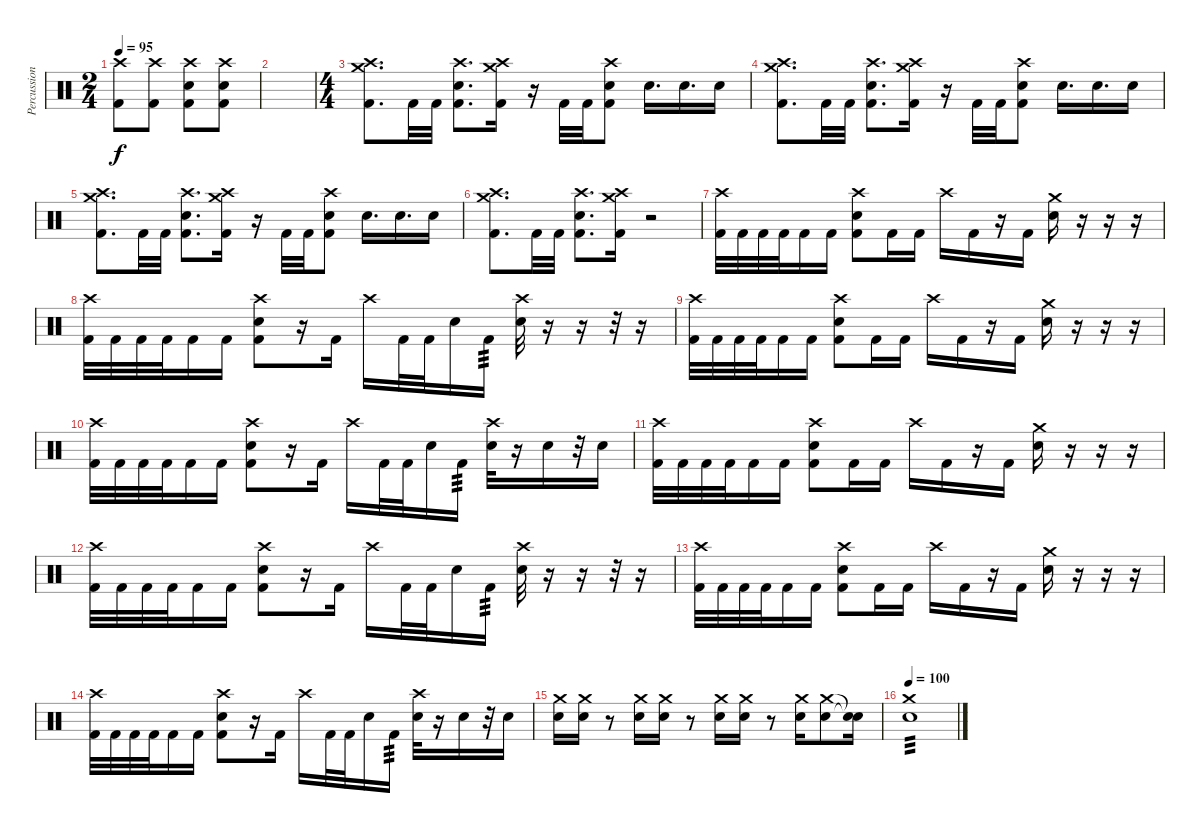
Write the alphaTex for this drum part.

\track ("Percussion" "Percussion") {instrument percussion}
\staff {score}
\articulation defaults
\ts (2 4)
\tempo 95
\clef neutral
\ks c
("Crash high (hit)" "Kick (hit) 2").8{dy f} ("Crash high (hit)" "Kick (hit) 2").8 ("Crash high (hit)" "Electric Snare (hit)" "Kick (hit) 2").8 ("Crash high (hit)" "Electric Snare (hit)" "Kick (hit) 2").8 |
|
\ts (4 4)
("Crash medium (hit)" "Crash high (hit)" "Kick (hit) 2").8{d} "Kick (hit) 2".32 "Kick (hit) 2".32 ("Crash high (hit)" "Electric Snare (hit)" "Kick (hit) 2").8{d} ("Crash medium (hit)" "Crash high (hit)" "Kick (hit) 2").16 r.16 "Kick (hit) 2".32 "Kick (hit) 2".32 ("Crash high (hit)" "Electric Snare (hit)" "Kick (hit) 2").8 "Electric Snare (hit)".16{d} "Electric Snare (hit)".16{d} "Electric Snare (hit)".16 |
("Crash medium (hit)" "Crash high (hit)" "Kick (hit) 2").8{d} "Kick (hit) 2".32 "Kick (hit) 2".32 ("Crash high (hit)" "Electric Snare (hit)" "Kick (hit) 2").8{d} ("Crash medium (hit)" "Crash high (hit)" "Kick (hit) 2").16 r.16 "Kick (hit) 2".32 "Kick (hit) 2".32 ("Crash high (hit)" "Electric Snare (hit)" "Kick (hit) 2").8 "Electric Snare (hit)".16{d} "Electric Snare (hit)".16{d} "Electric Snare (hit)".16 |
("Crash medium (hit)" "Crash high (hit)" "Kick (hit) 2").8{d} "Kick (hit) 2".32 "Kick (hit) 2".32 ("Crash high (hit)" "Electric Snare (hit)" "Kick (hit) 2").8{d} ("Crash medium (hit)" "Crash high (hit)" "Kick (hit) 2").16 r.16 "Kick (hit) 2".32 "Kick (hit) 2".32 ("Crash high (hit)" "Electric Snare (hit)" "Kick (hit) 2").8 "Electric Snare (hit)".16{d} "Electric Snare (hit)".16{d} "Electric Snare (hit)".16 |
("Crash medium (hit)" "Crash high (hit)" "Kick (hit) 2").8{d} "Kick (hit) 2".32 "Kick (hit) 2".32 ("Crash high (hit)" "Electric Snare (hit)" "Kick (hit) 2").8{d} ("Crash medium (hit)" "Crash high (hit)" "Kick (hit) 2").16 r.2 |
("Crash high (hit)" "Kick (hit) 2").32 "Kick (hit) 2".32 "Kick (hit) 2".32 "Kick (hit) 2".32 "Kick (hit) 2".16 "Kick (hit) 2".16 ("Crash high (hit)" "Electric Snare (hit)" "Kick (hit) 2").8 "Kick (hit) 2".16 "Kick (hit) 2".16 "Crash high (hit)".16 "Kick (hit) 2".16 r.16 "Kick (hit) 2".16 ("Crash medium (hit)" "Electric Snare (hit)").16 r.16 r.16 r.16 |
("Crash high (hit)" "Kick (hit) 2").32 "Kick (hit) 2".32 "Kick (hit) 2".32 "Kick (hit) 2".32 "Kick (hit) 2".16 "Kick (hit) 2".16 ("Crash high (hit)" "Electric Snare (hit)" "Kick (hit) 2").8 r.16 "Kick (hit) 2".16 "Crash high (hit)".16 "Kick (hit) 2".32 "Kick (hit) 2".32 "Electric Snare (hit)".16 "Kick (hit) 2".16{tp 3} ("Crash high (hit)" "Electric Snare (hit)").32 r.16 r.16 r.32 r.16 |
("Crash high (hit)" "Kick (hit) 2").32 "Kick (hit) 2".32 "Kick (hit) 2".32 "Kick (hit) 2".32 "Kick (hit) 2".16 "Kick (hit) 2".16 ("Crash high (hit)" "Electric Snare (hit)" "Kick (hit) 2").8 "Kick (hit) 2".16 "Kick (hit) 2".16 "Crash high (hit)".16 "Kick (hit) 2".16 r.16 "Kick (hit) 2".16 ("Crash medium (hit)" "Electric Snare (hit)").16 r.16 r.16 r.16 |
("Crash high (hit)" "Kick (hit) 2").32 "Kick (hit) 2".32 "Kick (hit) 2".32 "Kick (hit) 2".32 "Kick (hit) 2".16 "Kick (hit) 2".16 ("Crash high (hit)" "Electric Snare (hit)" "Kick (hit) 2").8 r.16 "Kick (hit) 2".16 "Crash high (hit)".16 "Kick (hit) 2".32 "Kick (hit) 2".32 "Electric Snare (hit)".16 "Kick (hit) 2".16{tp 3} ("Crash high (hit)" "Electric Snare (hit)").32 r.16 "Electric Snare (hit)".16 r.32 "Electric Snare (hit)".16 |
("Crash high (hit)" "Kick (hit) 2").32 "Kick (hit) 2".32 "Kick (hit) 2".32 "Kick (hit) 2".32 "Kick (hit) 2".16 "Kick (hit) 2".16 ("Crash high (hit)" "Electric Snare (hit)" "Kick (hit) 2").8 "Kick (hit) 2".16 "Kick (hit) 2".16 "Crash high (hit)".16 "Kick (hit) 2".16 r.16 "Kick (hit) 2".16 ("Crash medium (hit)" "Electric Snare (hit)").16 r.16 r.16 r.16 |
("Crash high (hit)" "Kick (hit) 2").32 "Kick (hit) 2".32 "Kick (hit) 2".32 "Kick (hit) 2".32 "Kick (hit) 2".16 "Kick (hit) 2".16 ("Crash high (hit)" "Electric Snare (hit)" "Kick (hit) 2").8 r.16 "Kick (hit) 2".16 "Crash high (hit)".16 "Kick (hit) 2".32 "Kick (hit) 2".32 "Electric Snare (hit)".16 "Kick (hit) 2".16{tp 3} ("Crash high (hit)" "Electric Snare (hit)").32 r.16 r.16 r.32 r.16 |
("Crash high (hit)" "Kick (hit) 2").32 "Kick (hit) 2".32 "Kick (hit) 2".32 "Kick (hit) 2".32 "Kick (hit) 2".16 "Kick (hit) 2".16 ("Crash high (hit)" "Electric Snare (hit)" "Kick (hit) 2").8 "Kick (hit) 2".16 "Kick (hit) 2".16 "Crash high (hit)".16 "Kick (hit) 2".16 r.16 "Kick (hit) 2".16 ("Crash medium (hit)" "Electric Snare (hit)").16 r.16 r.16 r.16 |
("Crash high (hit)" "Kick (hit) 2").32 "Kick (hit) 2".32 "Kick (hit) 2".32 "Kick (hit) 2".32 "Kick (hit) 2".16 "Kick (hit) 2".16 ("Crash high (hit)" "Electric Snare (hit)" "Kick (hit) 2").8 r.16 "Kick (hit) 2".16 "Crash high (hit)".16 "Kick (hit) 2".32 "Kick (hit) 2".32 "Electric Snare (hit)".16 "Kick (hit) 2".16{tp 3} ("Crash high (hit)" "Electric Snare (hit)").32 r.16 "Electric Snare (hit)".16 r.32 "Electric Snare (hit)".16 |
("Crash medium (hit)" "Electric Snare (hit)").16 ("Crash medium (hit)" "Electric Snare (hit)").16 r.8 ("Crash medium (hit)" "Electric Snare (hit)").16 ("Crash medium (hit)" "Electric Snare (hit)").16 r.8 ("Crash medium (hit)" "Electric Snare (hit)").16 ("Crash medium (hit)" "Electric Snare (hit)").16 r.8 ("Crash medium (hit)" "Electric Snare (hit)").16 ("Crash medium (hit)" "Electric Snare (hit)").8 ("Snare (hit)"{t} "Snare (hit)"{t}).16 |
\tempo 100
("Crash medium (hit)" "Electric Snare (hit)").1{tp 3}
